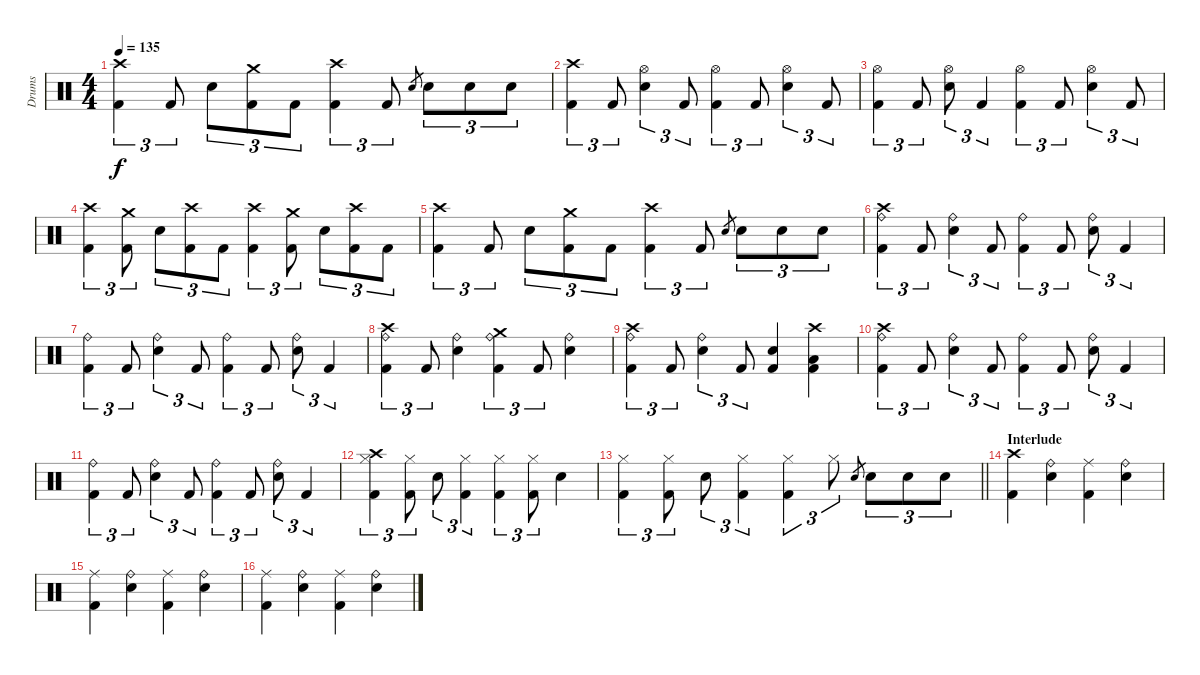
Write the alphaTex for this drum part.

\track ("Drums" "Drums") {instrument percussion}
\staff {score}
\articulation defaults
\ts (4 4)
\tempo 135
\clef neutral
\ks c
("Crash high (hit)" "Kick (hit) 2").4{tu (3 2) dy f} "Kick (hit) 2".8{tu (3 2)} "Snare (hit) 2".8{tu (3 2)} ("Crash medium (hit)" "Kick (hit) 2").8{tu (3 2)} "Kick (hit) 2".8{tu (3 2)} ("Crash high (hit)" "Kick (hit) 2").4{tu (3 2)} "Kick (hit) 2".8{tu (3 2)} "Snare (hit) 2".8{gr} "Snare (hit) 2".8{tu (3 2)} "Snare (hit) 2".8{tu (3 2)} "Snare (hit) 2".8{tu (3 2)} |
("Crash high (hit)" "Kick (hit) 2").4{tu (3 2)} "Kick (hit) 2".8{tu (3 2)} ("Hi-Hat (open)" "Snare (hit) 2").4{tu (3 2)} "Kick (hit) 2".8{tu (3 2)} ("Hi-Hat (open)" "Kick (hit) 2").4{tu (3 2)} "Kick (hit) 2".8{tu (3 2)} ("Hi-Hat (open)" "Snare (hit) 2").4{tu (3 2)} "Kick (hit) 2".8{tu (3 2)} |
("Hi-Hat (open)" "Kick (hit) 2").4{tu (3 2)} "Kick (hit) 2".8{tu (3 2)} ("Hi-Hat (open)" "Snare (hit) 2").8{tu (3 2)} "Kick (hit) 2".4{tu (3 2)} ("Hi-Hat (open)" "Kick (hit) 2").4{tu (3 2)} "Kick (hit) 2".8{tu (3 2)} ("Hi-Hat (open)" "Snare (hit) 2").4{tu (3 2)} "Kick (hit) 2".8{tu (3 2)} |
("Crash high (hit)" "Kick (hit) 2").4{tu (3 2)} ("Crash medium (hit)" "Kick (hit) 2").8{tu (3 2)} "Snare (hit) 2".8{tu (3 2)} ("Crash high (hit)" "Kick (hit) 2").8{tu (3 2)} "Kick (hit) 2".8{tu (3 2)} ("Crash high (hit)" "Kick (hit) 2").4{tu (3 2)} ("Crash medium (hit)" "Kick (hit) 2").8{tu (3 2)} "Snare (hit) 2".8{tu (3 2)} ("Crash high (hit)" "Kick (hit) 2").8{tu (3 2)} "Kick (hit) 2".8{tu (3 2)} |
("Crash high (hit)" "Kick (hit) 2").4{tu (3 2)} "Kick (hit) 2".8{tu (3 2)} "Snare (hit) 2".8{tu (3 2)} ("Crash medium (hit)" "Kick (hit) 2").8{tu (3 2)} "Kick (hit) 2".8{tu (3 2)} ("Crash high (hit)" "Kick (hit) 2").4{tu (3 2)} "Kick (hit) 2".8{tu (3 2)} "Snare (hit) 2".8{gr} "Snare (hit) 2".8{tu (3 2)} "Snare (hit) 2".8{tu (3 2)} "Snare (hit) 2".8{tu (3 2)} |
("Crash high (hit)" "Ride (bell)" "Kick (hit) 2").4{tu (3 2)} "Kick (hit) 2".8{tu (3 2)} ("Ride (bell)" "Snare (hit) 2").4{tu (3 2)} "Kick (hit) 2".8{tu (3 2)} ("Ride (bell)" "Kick (hit) 2").4{tu (3 2)} "Kick (hit) 2".8{tu (3 2)} ("Ride (bell)" "Snare (hit) 2").8{tu (3 2)} "Kick (hit) 2".4{tu (3 2)} |
("Ride (bell)" "Kick (hit) 2").4{tu (3 2)} "Kick (hit) 2".8{tu (3 2)} ("Ride (bell)" "Snare (hit) 2").4{tu (3 2)} "Kick (hit) 2".8{tu (3 2)} ("Ride (bell)" "Kick (hit) 2").4{tu (3 2)} "Kick (hit) 2".8{tu (3 2)} ("Ride (bell)" "Snare (hit) 2").8{tu (3 2)} "Kick (hit) 2".4{tu (3 2)} |
("Crash high (hit)" "Ride (bell)" "Kick (hit) 2").4{tu (3 2)} "Kick (hit) 2".8{tu (3 2)} ("Ride (bell)" "Snare (hit) 2").4 ("Crash medium (hit)" "Ride (bell)" "Kick (hit) 2").4{tu (3 2)} "Kick (hit) 2".8{tu (3 2)} ("Ride (bell)" "Snare (hit) 2").4 |
("Crash high (hit)" "Ride (bell)" "Kick (hit) 2").4{tu (3 2)} "Kick (hit) 2".8{tu (3 2)} ("Ride (bell)" "Snare (hit) 2").4{tu (3 2)} "Kick (hit) 2".8{tu (3 2)} ("Snare (hit) 2" "Kick (hit) 2").4 ("Crash high (hit)" "Low Tom (hit)" "Kick (hit) 2").4 |
("Crash high (hit)" "Ride (bell)" "Kick (hit) 2").4{tu (3 2)} "Kick (hit) 2".8{tu (3 2)} ("Ride (bell)" "Snare (hit) 2").4{tu (3 2)} "Kick (hit) 2".8{tu (3 2)} ("Ride (bell)" "Kick (hit) 2").4{tu (3 2)} "Kick (hit) 2".8{tu (3 2)} ("Ride (bell)" "Snare (hit) 2").8{tu (3 2)} "Kick (hit) 2".4{tu (3 2)} |
("Ride (bell)" "Kick (hit) 2").4{tu (3 2)} "Kick (hit) 2".8{tu (3 2)} ("Ride (bell)" "Snare (hit) 2").4{tu (3 2)} "Kick (hit) 2".8{tu (3 2)} ("Ride (bell)" "Kick (hit) 2").4{tu (3 2)} "Kick (hit) 2".8{tu (3 2)} ("Ride (bell)" "Snare (hit) 2").8{tu (3 2)} "Kick (hit) 2".4{tu (3 2)} |
("Crash high (hit)" "Hi-Hat (closed)" "Kick (hit) 2").4{tu (3 2)} ("Hi-Hat (closed)" "Kick (hit) 2").8{tu (3 2)} "Snare (hit) 2".8{tu (3 2)} ("Hi-Hat (closed)" "Kick (hit) 2").4{tu (3 2)} ("Hi-Hat (closed)" "Kick (hit) 2").4{tu (3 2)} ("Hi-Hat (closed)" "Kick (hit) 2").8{tu (3 2)} "Snare (hit) 2".4 |
\barLineRight lightlight
("Hi-Hat (closed)" "Kick (hit) 2").4{tu (3 2)} ("Hi-Hat (closed)" "Kick (hit) 2").8{tu (3 2)} "Snare (hit) 2".8{tu (3 2)} ("Hi-Hat (closed)" "Kick (hit) 2").4{tu (3 2)} ("Hi-Hat (closed)" "Kick (hit) 2").4{tu (3 2)} "Hi-Hat (closed)".8{tu (3 2)} "Snare (hit) 2".8{gr} "Snare (hit) 2".8{tu (3 2)} "Snare (hit) 2".8{tu (3 2)} "Snare (hit) 2".8{tu (3 2)} |
\section ("" "Interlude")
("Crash high (hit)" "Kick (hit) 2").4 ("Ride (bell)" "Snare (hit) 2").4 ("Ride (middle)" "Kick (hit) 2").4 ("Ride (bell)" "Snare (hit) 2").4 |
("Ride (middle)" "Kick (hit) 2").4 ("Ride (bell)" "Snare (hit) 2").4 ("Ride (middle)" "Kick (hit) 2").4 ("Ride (bell)" "Snare (hit) 2").4 |
("Ride (middle)" "Kick (hit) 2").4 ("Ride (bell)" "Snare (hit) 2").4 ("Ride (middle)" "Kick (hit) 2").4 ("Ride (bell)" "Snare (hit) 2").4
